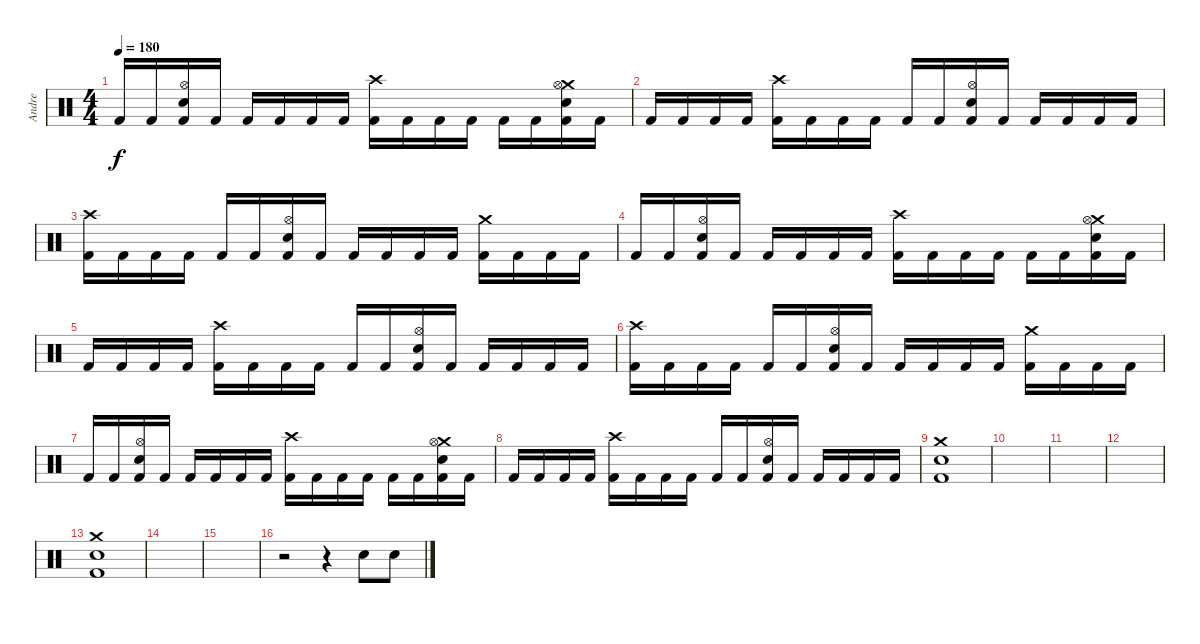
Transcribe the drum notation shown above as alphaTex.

\track ("Andre" "Andre") {instrument percussion}
\staff {score}
\articulation defaults
\ts (4 4)
\tempo 180
\clef neutral
\ks c "Kick (hit) 2".16{dy f} "Kick (hit) 2".16
("Hi-Hat (open)" "Snare (hit) 2" "Kick (hit) 2").16 "Kick (hit) 2".16 "Kick (hit) 2".16 "Kick (hit) 2".16 "Kick (hit) 2".16 "Kick (hit) 2".16 ("Crash high (hit)" "Kick (hit) 2").16 "Kick (hit) 2".16 "Kick (hit) 2".16 "Kick (hit) 2".16 "Kick (hit) 2".16 "Kick (hit) 2".16 ("Crash medium (hit)" "Hi-Hat (open)" "Snare (hit) 2" "Kick (hit) 2").16 "Kick (hit) 2".16 |
"Kick (hit) 2".16 "Kick (hit) 2".16 "Kick (hit) 2".16 "Kick (hit) 2".16 ("Crash high (hit)" "Kick (hit) 2").16 "Kick (hit) 2".16 "Kick (hit) 2".16 "Kick (hit) 2".16 "Kick (hit) 2".16 "Kick (hit) 2".16 ("Hi-Hat (open)" "Snare (hit) 2" "Kick (hit) 2").16 "Kick (hit) 2".16 "Kick (hit) 2".16 "Kick (hit) 2".16 "Kick (hit) 2".16 "Kick (hit) 2".16 |
("Crash high (hit)" "Kick (hit) 2").16 "Kick (hit) 2".16 "Kick (hit) 2".16 "Kick (hit) 2".16 "Kick (hit) 2".16 "Kick (hit) 2".16 ("Hi-Hat (open)" "Snare (hit) 2" "Kick (hit) 2").16 "Kick (hit) 2".16 "Kick (hit) 2".16 "Kick (hit) 2".16 "Kick (hit) 2".16 "Kick (hit) 2".16 ("Crash medium (hit)" "Kick (hit) 2").16 "Kick (hit) 2".16 "Kick (hit) 2".16 "Kick (hit) 2".16 |
"Kick (hit) 2".16 "Kick (hit) 2".16 ("Hi-Hat (open)" "Snare (hit) 2" "Kick (hit) 2").16 "Kick (hit) 2".16 "Kick (hit) 2".16 "Kick (hit) 2".16 "Kick (hit) 2".16 "Kick (hit) 2".16 ("Crash high (hit)" "Kick (hit) 2").16 "Kick (hit) 2".16 "Kick (hit) 2".16 "Kick (hit) 2".16 "Kick (hit) 2".16 "Kick (hit) 2".16 ("Crash medium (hit)" "Hi-Hat (open)" "Snare (hit) 2" "Kick (hit) 2").16 "Kick (hit) 2".16 |
"Kick (hit) 2".16 "Kick (hit) 2".16 "Kick (hit) 2".16 "Kick (hit) 2".16 ("Crash high (hit)" "Kick (hit) 2").16 "Kick (hit) 2".16 "Kick (hit) 2".16 "Kick (hit) 2".16 "Kick (hit) 2".16 "Kick (hit) 2".16 ("Hi-Hat (open)" "Snare (hit) 2" "Kick (hit) 2").16 "Kick (hit) 2".16 "Kick (hit) 2".16 "Kick (hit) 2".16 "Kick (hit) 2".16 "Kick (hit) 2".16 |
("Crash high (hit)" "Kick (hit) 2").16 "Kick (hit) 2".16 "Kick (hit) 2".16 "Kick (hit) 2".16 "Kick (hit) 2".16 "Kick (hit) 2".16 ("Hi-Hat (open)" "Snare (hit) 2" "Kick (hit) 2").16 "Kick (hit) 2".16 "Kick (hit) 2".16 "Kick (hit) 2".16 "Kick (hit) 2".16 "Kick (hit) 2".16 ("Crash medium (hit)" "Kick (hit) 2").16 "Kick (hit) 2".16 "Kick (hit) 2".16 "Kick (hit) 2".16 |
"Kick (hit) 2".16 "Kick (hit) 2".16 ("Hi-Hat (open)" "Snare (hit) 2" "Kick (hit) 2").16 "Kick (hit) 2".16 "Kick (hit) 2".16 "Kick (hit) 2".16 "Kick (hit) 2".16 "Kick (hit) 2".16 ("Crash high (hit)" "Kick (hit) 2").16 "Kick (hit) 2".16 "Kick (hit) 2".16 "Kick (hit) 2".16 "Kick (hit) 2".16 "Kick (hit) 2".16 ("Crash medium (hit)" "Hi-Hat (open)" "Snare (hit) 2" "Kick (hit) 2").16 "Kick (hit) 2".16 |
"Kick (hit) 2".16 "Kick (hit) 2".16 "Kick (hit) 2".16 "Kick (hit) 2".16 ("Crash high (hit)" "Kick (hit) 2").16 "Kick (hit) 2".16 "Kick (hit) 2".16 "Kick (hit) 2".16 "Kick (hit) 2".16 "Kick (hit) 2".16 ("Hi-Hat (open)" "Snare (hit) 2" "Kick (hit) 2").16 "Kick (hit) 2".16 "Kick (hit) 2".16 "Kick (hit) 2".16 "Kick (hit) 2".16 "Kick (hit) 2".16 |
("Crash medium (hit)" "Snare (hit) 2" "Kick (hit) 2").1 |
|
|
|
("Crash medium (hit)" "Snare (hit) 2" "Kick (hit) 2").1 |
|
|
r.2 r.4 "Snare (hit) 2".8 "Snare (hit) 2".8
